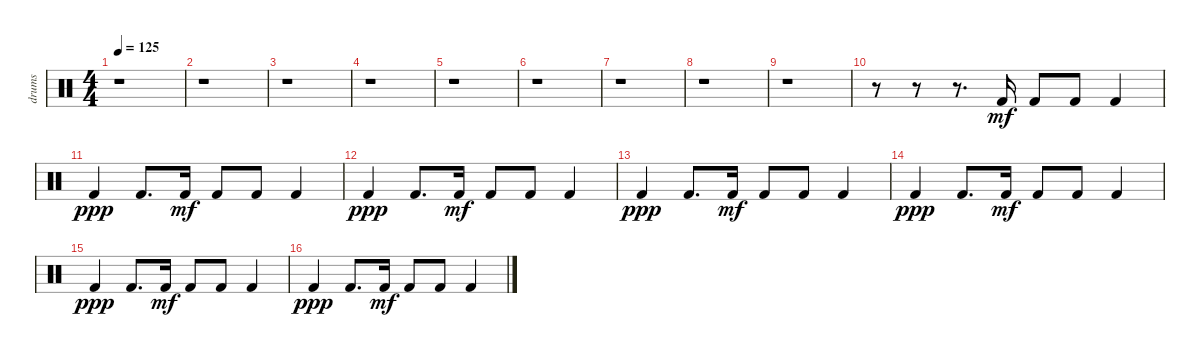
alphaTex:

\track ("drums" "drums") {instrument percussion}
\staff {score}
\articulation defaults
\ts (4 4)
\tempo 125
\clef neutral
\ks c
r.1{dy mf} |
r.1 |
r.1 |
r.1 |
r.1 |
r.1 |
r.1 |
r.1 |
r.1 |
r.8 r.8 r.8{d} "Kick (hit) 2".16 "Kick (hit) 2".8 "Kick (hit) 2".8 "Kick (hit) 2".4 |
"Kick (hit) 2".4{dy ppp} "Kick (hit) 2".8{d} "Kick (hit) 2".16{dy mf} "Kick (hit) 2".8 "Kick (hit) 2".8 "Kick (hit) 2".4 |
"Kick (hit) 2".4{dy ppp} "Kick (hit) 2".8{d} "Kick (hit) 2".16{dy mf} "Kick (hit) 2".8 "Kick (hit) 2".8 "Kick (hit) 2".4 |
"Kick (hit) 2".4{dy ppp} "Kick (hit) 2".8{d} "Kick (hit) 2".16{dy mf} "Kick (hit) 2".8 "Kick (hit) 2".8 "Kick (hit) 2".4 |
"Kick (hit) 2".4{dy ppp} "Kick (hit) 2".8{d} "Kick (hit) 2".16{dy mf} "Kick (hit) 2".8 "Kick (hit) 2".8 "Kick (hit) 2".4 |
"Kick (hit) 2".4{dy ppp} "Kick (hit) 2".8{d} "Kick (hit) 2".16{dy mf} "Kick (hit) 2".8 "Kick (hit) 2".8 "Kick (hit) 2".4 |
"Kick (hit) 2".4{dy ppp} "Kick (hit) 2".8{d} "Kick (hit) 2".16{dy mf} "Kick (hit) 2".8 "Kick (hit) 2".8 "Kick (hit) 2".4
